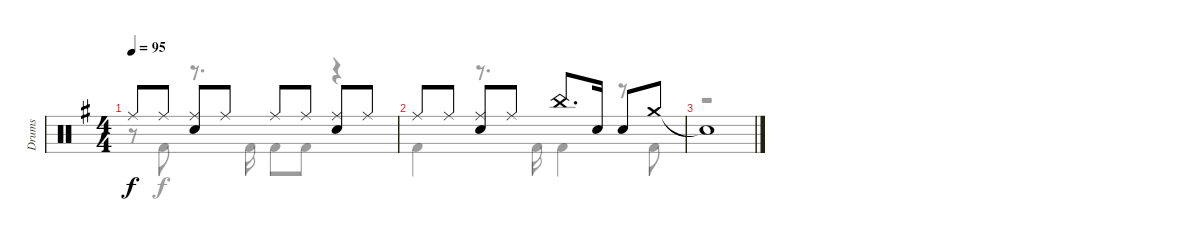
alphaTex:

\track ("Drums" "Drums") {instrument percussion}
\staff {score}
\articulation defaults
\voice
\ts (4 4)
\tempo 95
\clef neutral
\ks g "Ride (middle)".8{dy f} "Ride (middle)".8
("Ride (middle)" "Snare (hit) 2").8 "Ride (middle)".8 "Ride (middle)".8 "Ride (middle)".8 ("Ride (middle)" "Snare (hit) 2").8 "Ride (middle)".8 |
"Ride (middle)".8 "Ride (middle)".8 ("Ride (middle)" "Snare (hit) 2").8 "Ride (middle)".8 "China (hit)".8{d} "Snare (hit) 2".16 "Snare (hit) 2".8 "Crash medium (hit)".8 |
"Snare (hit)"{t}.1
\voice
\clef neutral
\ottava regular
\simile none
\ks g
r.8{dy f} "Kick (hit) 2".8 r.8{d} "Kick (hit) 2".16 "Kick (hit) 2".8 "Kick (hit) 2".8 r.4 |
"Kick (hit) 2".4 r.8{d} "Kick (hit) 2".16 "Kick (hit) 2".4 r.8 "Kick (hit) 2".8 |
r.1
